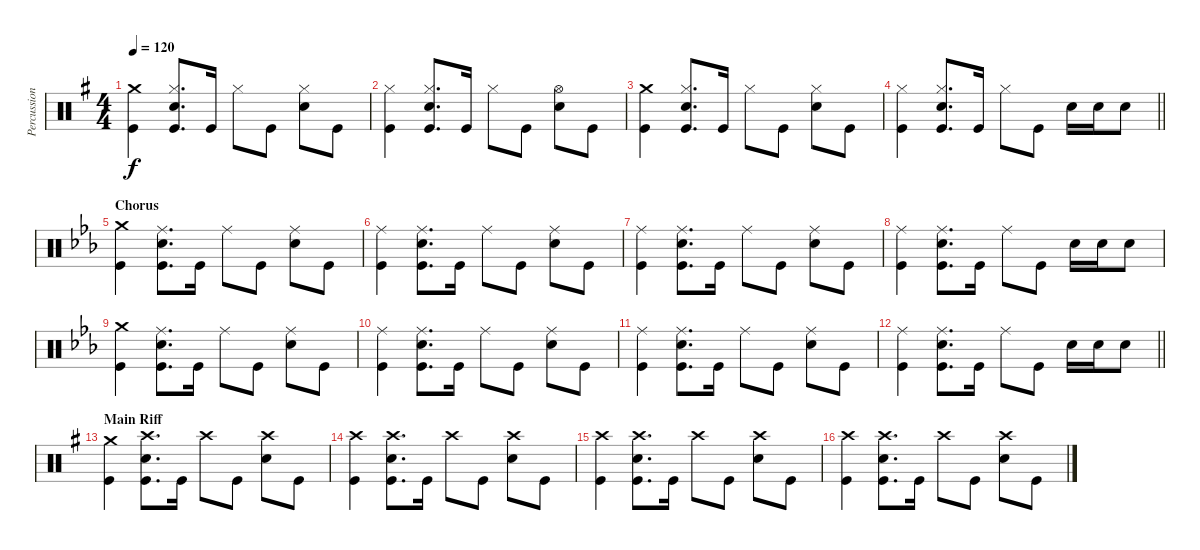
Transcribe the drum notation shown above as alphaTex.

\track ("Percussion" "Percussion") {instrument percussion}
\staff {score}
\articulation defaults
\ts (4 4)
\tempo 120
\clef neutral
\ks g
("Crash medium (hit)" "Kick (hit)").4{dy f} ("Hi-Hat (closed)" "Electric Snare (hit)" "Kick (hit)").8{d} "Kick (hit)".16 "Hi-Hat (closed)".8 "Kick (hit)".8 ("Hi-Hat (closed)" "Electric Snare (hit)").8 "Kick (hit)".8 |
("Hi-Hat (closed)" "Kick (hit)").4 ("Hi-Hat (closed)" "Electric Snare (hit)" "Kick (hit)").8{d} "Kick (hit)".16 "Hi-Hat (closed)".8 "Kick (hit)".8 ("Hi-Hat (open)" "Electric Snare (hit)").8 "Kick (hit)".8 |
("Crash medium (hit)" "Kick (hit)").4 ("Hi-Hat (closed)" "Electric Snare (hit)" "Kick (hit)").8{d} "Kick (hit)".16 "Hi-Hat (closed)".8 "Kick (hit)".8 ("Hi-Hat (closed)" "Electric Snare (hit)").8 "Kick (hit)".8 |
\barLineRight lightlight
("Hi-Hat (closed)" "Kick (hit)").4 ("Hi-Hat (closed)" "Electric Snare (hit)" "Kick (hit)").8{d} "Kick (hit)".16 "Hi-Hat (closed)".8 "Kick (hit)".8 "Electric Snare (hit)".16 "Electric Snare (hit)".16 "Electric Snare (hit)".8 |
\section ("" "Chorus")
\ks eb
("Crash medium (hit)" "Kick (hit)").4 ("Ride (middle)" "Electric Snare (hit)" "Kick (hit)").8{d} "Kick (hit)".16 "Ride (middle)".8 "Kick (hit)".8 ("Ride (middle)" "Electric Snare (hit)").8 "Kick (hit)".8 |
("Ride (middle)" "Kick (hit)").4 ("Ride (middle)" "Electric Snare (hit)" "Kick (hit)").8{d} "Kick (hit)".16 "Ride (middle)".8 "Kick (hit)".8 ("Ride (middle)" "Electric Snare (hit)").8 "Kick (hit)".8 |
("Ride (middle)" "Kick (hit)").4 ("Ride (middle)" "Electric Snare (hit)" "Kick (hit)").8{d} "Kick (hit)".16 "Ride (middle)".8 "Kick (hit)".8 ("Ride (middle)" "Electric Snare (hit)").8 "Kick (hit)".8 |
("Ride (middle)" "Kick (hit)").4 ("Ride (middle)" "Electric Snare (hit)" "Kick (hit)").8{d} "Kick (hit)".16 "Ride (middle)".8 "Kick (hit)".8 "Electric Snare (hit)".16 "Electric Snare (hit)".16 "Electric Snare (hit)".8 |
("Crash medium (hit)" "Kick (hit)").4 ("Ride (middle)" "Electric Snare (hit)" "Kick (hit)").8{d} "Kick (hit)".16 "Ride (middle)".8 "Kick (hit)".8 ("Ride (middle)" "Electric Snare (hit)").8 "Kick (hit)".8 |
("Ride (middle)" "Kick (hit)").4 ("Ride (middle)" "Electric Snare (hit)" "Kick (hit)").8{d} "Kick (hit)".16 "Ride (middle)".8 "Kick (hit)".8 ("Ride (middle)" "Electric Snare (hit)").8 "Kick (hit)".8 |
("Ride (middle)" "Kick (hit)").4 ("Ride (middle)" "Electric Snare (hit)" "Kick (hit)").8{d} "Kick (hit)".16 "Ride (middle)".8 "Kick (hit)".8 ("Ride (middle)" "Electric Snare (hit)").8 "Kick (hit)".8 |
\barLineRight lightlight
("Ride (middle)" "Kick (hit)").4 ("Ride (middle)" "Electric Snare (hit)" "Kick (hit)").8{d} "Kick (hit)".16 "Ride (middle)".8 "Kick (hit)".8 "Electric Snare (hit)".16 "Electric Snare (hit)".16 "Electric Snare (hit)".8 |
\section ("" "Main Riff")
\ks g
("Crash medium (hit)" "Kick (hit)").4 ("Crash high (hit)" "Electric Snare (hit)" "Kick (hit)").8{d} "Kick (hit)".16 "Crash high (hit)".8 "Kick (hit)".8 ("Crash high (hit)" "Electric Snare (hit)").8 "Kick (hit)".8 |
("Crash high (hit)" "Kick (hit)").4 ("Crash high (hit)" "Electric Snare (hit)" "Kick (hit)").8{d} "Kick (hit)".16 "Crash high (hit)".8 "Kick (hit)".8 ("Crash high (hit)" "Electric Snare (hit)").8 "Kick (hit)".8 |
("Crash high (hit)" "Kick (hit)").4 ("Crash high (hit)" "Electric Snare (hit)" "Kick (hit)").8{d} "Kick (hit)".16 "Crash high (hit)".8 "Kick (hit)".8 ("Crash high (hit)" "Electric Snare (hit)").8 "Kick (hit)".8 |
("Crash high (hit)" "Kick (hit)").4 ("Crash high (hit)" "Electric Snare (hit)" "Kick (hit)").8{d} "Kick (hit)".16 "Crash high (hit)".8 "Kick (hit)".8 ("Crash high (hit)" "Electric Snare (hit)").8 "Kick (hit)".8
